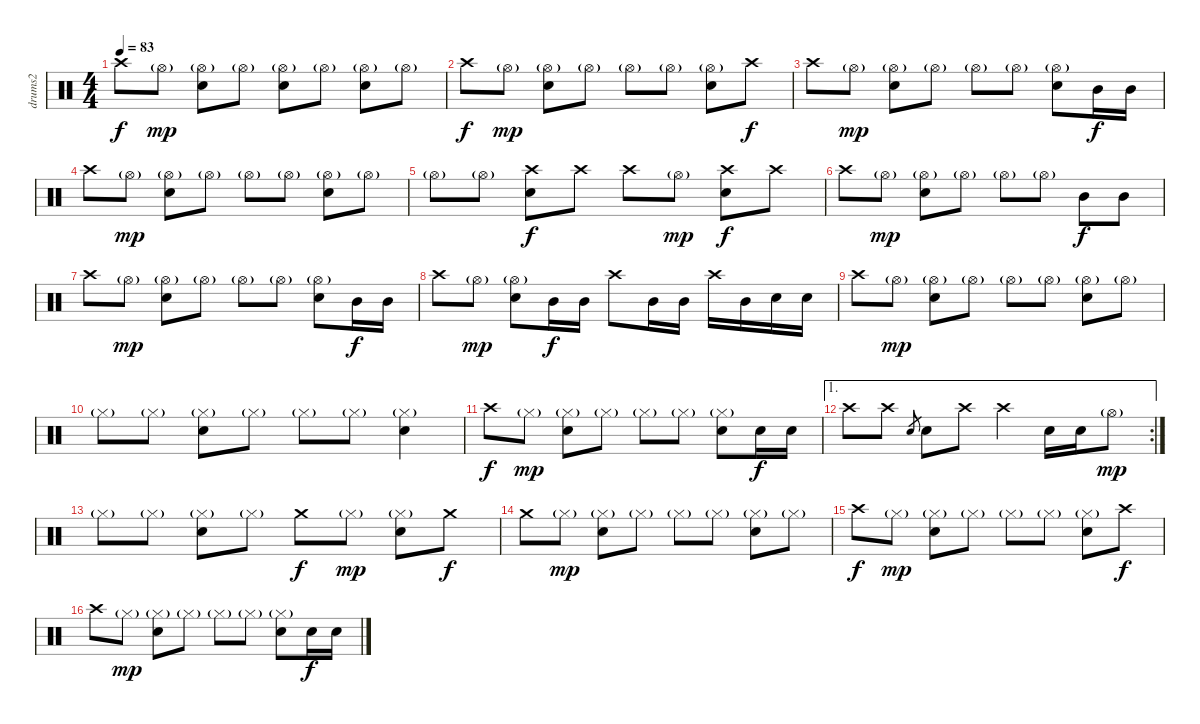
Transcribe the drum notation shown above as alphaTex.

\track ("drums2" "drums2") {instrument percussion}
\staff {score}
\articulation defaults
\ts (4 4)
\tempo 83
\clef neutral
\ks c "Crash high (hit)".8{dy f} "Hi-Hat (open)"{g}.8{dy mp}
("Hi-Hat (open)"{g} "Snare (hit) 2").8 "Hi-Hat (open)"{g}.8 ("Hi-Hat (open)"{g} "Snare (hit) 2").8 "Hi-Hat (open)"{g}.8 ("Hi-Hat (open)"{g} "Snare (hit) 2").8 "Hi-Hat (open)"{g}.8 |
"Crash high (hit)".8{dy f} "Hi-Hat (open)"{g}.8{dy mp} ("Hi-Hat (open)"{g} "Snare (hit) 2").8 "Hi-Hat (open)"{g}.8 "Hi-Hat (open)"{g}.8 "Hi-Hat (open)"{g}.8 ("Hi-Hat (open)"{g} "Snare (hit) 2").8 "Crash high (hit)".8{dy f} |
"Crash high (hit)".8 "Hi-Hat (open)"{g}.8{dy mp} ("Hi-Hat (open)"{g} "Snare (hit) 2").8 "Hi-Hat (open)"{g}.8 "Hi-Hat (open)"{g}.8 "Hi-Hat (open)"{g}.8 ("Hi-Hat (open)"{g} "Snare (hit) 2").8 "Mid Tom (hit)".16{dy f} "Mid Tom (hit)".16 |
"Crash high (hit)".8 "Hi-Hat (open)"{g}.8{dy mp} ("Hi-Hat (open)"{g} "Snare (hit) 2").8 "Hi-Hat (open)"{g}.8 "Hi-Hat (open)"{g}.8 "Hi-Hat (open)"{g}.8 ("Hi-Hat (open)"{g} "Snare (hit) 2").8 "Hi-Hat (open)"{g}.8 |
"Hi-Hat (open)"{g}.8 "Hi-Hat (open)"{g}.8 ("Crash high (hit)" "Snare (hit) 2").8{dy f} "Crash high (hit)".8 "Crash high (hit)".8 "Hi-Hat (open)"{g}.8{dy mp} ("Crash high (hit)" "Snare (hit) 2").8{dy f} "Crash high (hit)".8 |
"Crash high (hit)".8 "Hi-Hat (open)"{g}.8{dy mp} ("Hi-Hat (open)"{g} "Snare (hit) 2").8 "Hi-Hat (open)"{g}.8 "Hi-Hat (open)"{g}.8 "Hi-Hat (open)"{g}.8 "Mid Tom (hit)".8{dy f} "Mid Tom (hit)".8 |
"Crash high (hit)".8 "Hi-Hat (open)"{g}.8{dy mp} ("Hi-Hat (open)"{g} "Snare (hit) 2").8 "Hi-Hat (open)"{g}.8 "Hi-Hat (open)"{g}.8 "Hi-Hat (open)"{g}.8 ("Hi-Hat (open)"{g} "Snare (hit) 2").8 "Mid Tom (hit)".16{dy f} "Mid Tom (hit)".16 |
"Crash high (hit)".8 "Hi-Hat (open)"{g}.8{dy mp} ("Hi-Hat (open)"{g} "Snare (hit) 2").8 "Mid Tom (hit)".16{dy f} "Mid Tom (hit)".16 "Crash high (hit)".8 "Mid Tom (hit)".16 "Mid Tom (hit)".16 "Crash high (hit)".16 "Mid Tom (hit)".16 "Snare (hit) 2".16 "Snare (hit) 2".16 |
"Crash high (hit)".8 "Hi-Hat (open)"{g}.8{dy mp} ("Hi-Hat (open)"{g} "Snare (hit) 2").8 "Hi-Hat (open)"{g}.8 "Hi-Hat (open)"{g}.8 "Hi-Hat (open)"{g}.8 ("Hi-Hat (open)"{g} "Snare (hit) 2").8 "Hi-Hat (open)"{g}.8 |
"Hi-Hat (closed)"{g}.8 "Hi-Hat (closed)"{g}.8 ("Hi-Hat (closed)"{g} "Snare (hit) 2").8 "Hi-Hat (closed)"{g}.8 "Hi-Hat (closed)"{g}.8 "Hi-Hat (closed)"{g}.8 ("Hi-Hat (closed)"{g} "Snare (hit) 2").4 |
"Crash high (hit)".8{dy f} "Hi-Hat (closed)"{g}.8{dy mp} ("Hi-Hat (closed)"{g} "Snare (hit) 2").8 "Hi-Hat (closed)"{g}.8 "Hi-Hat (closed)"{g}.8 "Hi-Hat (closed)"{g}.8 ("Hi-Hat (closed)"{g} "Snare (hit) 2").8 "Snare (hit) 2".16{dy f} "Snare (hit) 2".16 |
\ae 1
\rc 2 "Crash high (hit)".8 "Crash high (hit)".8 "Snare (hit) 2".8{gr} "Snare (hit) 2".8 "Crash high (hit)".8 "Crash high (hit)".4 "Snare (hit) 2".16 "Snare (hit) 2".16 "Hi-Hat (open)"{g}.8{dy mp}
|
"Hi-Hat (closed)"{g}.8 "Hi-Hat (closed)"{g}.8 ("Hi-Hat (closed)"{g} "Snare (hit) 2").8 "Hi-Hat (closed)"{g}.8 "Crash medium (hit)".8{dy f} "Hi-Hat (closed)"{g}.8{dy mp} ("Hi-Hat (closed)"{g} "Snare (hit) 2").8 "Crash medium (hit)".8{dy f} |
"Crash medium (hit)".8 "Hi-Hat (closed)"{g}.8{dy mp} ("Hi-Hat (closed)"{g} "Snare (hit) 2").8 "Hi-Hat (closed)"{g}.8 "Hi-Hat (closed)"{g}.8 "Hi-Hat (closed)"{g}.8 ("Hi-Hat (closed)"{g} "Snare (hit) 2").8 "Hi-Hat (closed)"{g}.8 |
"Crash high (hit)".8{dy f} "Hi-Hat (closed)"{g}.8{dy mp} ("Hi-Hat (closed)"{g} "Snare (hit) 2").8 "Hi-Hat (closed)"{g}.8 "Hi-Hat (closed)"{g}.8 "Hi-Hat (closed)"{g}.8 ("Hi-Hat (closed)"{g} "Snare (hit) 2").8 "Crash high (hit)".8{dy f} |
"Crash high (hit)".8 "Hi-Hat (closed)"{g}.8{dy mp} ("Hi-Hat (closed)"{g} "Snare (hit) 2").8 "Hi-Hat (closed)"{g}.8 "Hi-Hat (closed)"{g}.8 "Hi-Hat (closed)"{g}.8 ("Hi-Hat (closed)"{g} "Snare (hit) 2").8 "Snare (hit) 2".16{dy f} "Snare (hit) 2".16
